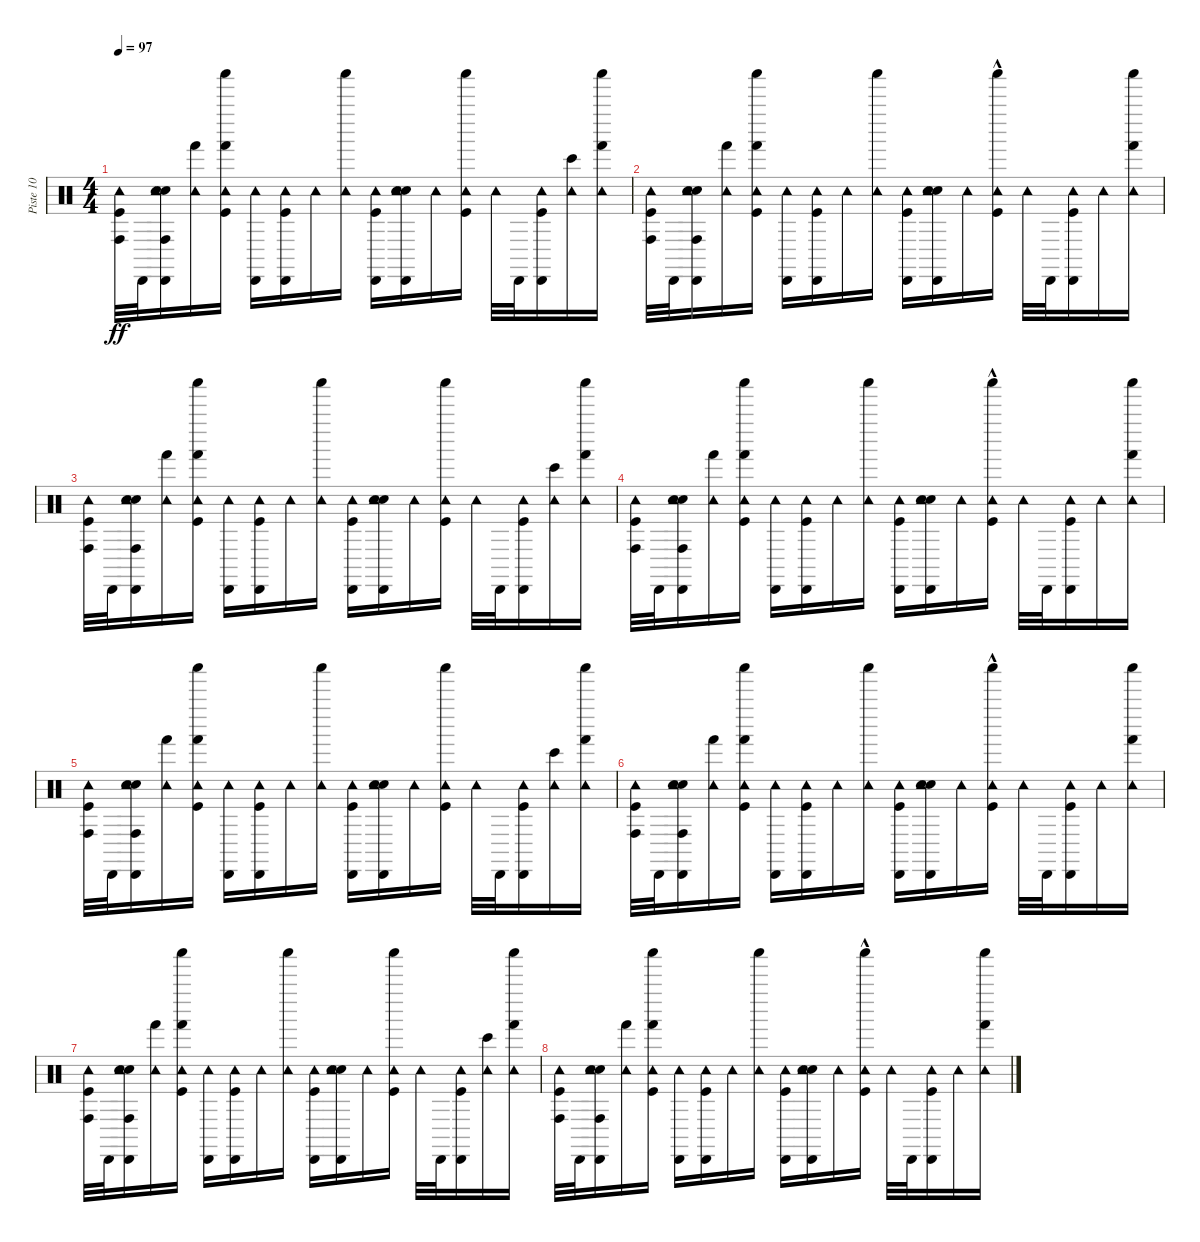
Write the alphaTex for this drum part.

\track ("Piste 10" "Piste 10") {instrument percussion}
\staff {score}
\articulation defaults
\ts (4 4)
\tempo 97
\clef neutral
\ks c
("Conga high (hit)" "Kick (hit)" "Tambourine (hit)").32{dy ff} "Cabasa (hit)".32 ("Conga high (hit)" "Cabasa (hit)" "Hand Clap (hit)" "Electric Snare (hit)" "Tambourine (hit)").16 ("Hand (hit)" "Tambourine (hit)").16 ("Hand (hit)" "Shaker (hit)" "Kick (hit)" "Tambourine (hit)").16 ("Cabasa (hit)" "Tambourine (hit)").16 ("Cabasa (hit)" "Kick (hit)" "Tambourine (hit)").16 "Tambourine (hit)".16 ("Shaker (hit)" "Tambourine (hit)").16 ("Cabasa (hit)" "Kick (hit)" "Tambourine (hit)").16 ("Cabasa (hit)" "Hand Clap (hit)" "Electric Snare (hit)" "Tambourine (hit)").16 "Tambourine (hit)".16 ("Shaker (hit)" "Kick (hit)" "Tambourine (hit)").16 "Tambourine (hit)".32 "Cabasa (hit)".32 ("Cabasa (hit)" "Kick (hit)" "Tambourine (hit)").16 ("Bongo High (hit)" "Tambourine (hit)").16 ("Hand (hit)" "Shaker (hit)" "Tambourine (hit)").16 |
("Conga high (hit)" "Kick (hit)" "Tambourine (hit)").32 "Cabasa (hit)".32 ("Conga high (hit)" "Cabasa (hit)" "Hand Clap (hit)" "Electric Snare (hit)" "Tambourine (hit)").16 ("Hand (hit)" "Tambourine (hit)").16 ("Hand (hit)" "Shaker (hit)" "Kick (hit)" "Tambourine (hit)").16 ("Cabasa (hit)" "Tambourine (hit)").16 ("Cabasa (hit)" "Kick (hit)" "Tambourine (hit)").16 "Tambourine (hit)".16 ("Shaker (hit)" "Tambourine (hit)").16 ("Cabasa (hit)" "Kick (hit)" "Tambourine (hit)").16 ("Cabasa (hit)" "Hand Clap (hit)" "Electric Snare (hit)" "Tambourine (hit)").16 "Tambourine (hit)".16 ("Shaker (hit)"{hac} "Kick (hit)" "Tambourine (hit)").16 "Tambourine (hit)".32 "Cabasa (hit)".32 ("Cabasa (hit)" "Kick (hit)" "Tambourine (hit)").16 "Tambourine (hit)".16 ("Hand (hit)" "Shaker (hit)" "Tambourine (hit)").16 |
("Conga high (hit)" "Kick (hit)" "Tambourine (hit)").32 "Cabasa (hit)".32 ("Conga high (hit)" "Cabasa (hit)" "Hand Clap (hit)" "Electric Snare (hit)" "Tambourine (hit)").16 ("Hand (hit)" "Tambourine (hit)").16 ("Hand (hit)" "Shaker (hit)" "Kick (hit)" "Tambourine (hit)").16 ("Cabasa (hit)" "Tambourine (hit)").16 ("Cabasa (hit)" "Kick (hit)" "Tambourine (hit)").16 "Tambourine (hit)".16 ("Shaker (hit)" "Tambourine (hit)").16 ("Cabasa (hit)" "Kick (hit)" "Tambourine (hit)").16 ("Cabasa (hit)" "Hand Clap (hit)" "Electric Snare (hit)" "Tambourine (hit)").16 "Tambourine (hit)".16 ("Shaker (hit)" "Kick (hit)" "Tambourine (hit)").16 "Tambourine (hit)".32 "Cabasa (hit)".32 ("Cabasa (hit)" "Kick (hit)" "Tambourine (hit)").16 ("Bongo High (hit)" "Tambourine (hit)").16 ("Hand (hit)" "Shaker (hit)" "Tambourine (hit)").16 |
("Conga high (hit)" "Kick (hit)" "Tambourine (hit)").32 "Cabasa (hit)".32 ("Conga high (hit)" "Cabasa (hit)" "Hand Clap (hit)" "Electric Snare (hit)" "Tambourine (hit)").16 ("Hand (hit)" "Tambourine (hit)").16 ("Hand (hit)" "Shaker (hit)" "Kick (hit)" "Tambourine (hit)").16 ("Cabasa (hit)" "Tambourine (hit)").16 ("Cabasa (hit)" "Kick (hit)" "Tambourine (hit)").16 "Tambourine (hit)".16 ("Shaker (hit)" "Tambourine (hit)").16 ("Cabasa (hit)" "Kick (hit)" "Tambourine (hit)").16 ("Cabasa (hit)" "Hand Clap (hit)" "Electric Snare (hit)" "Tambourine (hit)").16 "Tambourine (hit)".16 ("Shaker (hit)"{hac} "Kick (hit)" "Tambourine (hit)").16 "Tambourine (hit)".32 "Cabasa (hit)".32 ("Cabasa (hit)" "Kick (hit)" "Tambourine (hit)").16 "Tambourine (hit)".16 ("Hand (hit)" "Shaker (hit)" "Tambourine (hit)").16 |
("Conga high (hit)" "Kick (hit)" "Tambourine (hit)").32 "Cabasa (hit)".32 ("Conga high (hit)" "Cabasa (hit)" "Hand Clap (hit)" "Electric Snare (hit)" "Tambourine (hit)").16 ("Hand (hit)" "Tambourine (hit)").16 ("Hand (hit)" "Shaker (hit)" "Kick (hit)" "Tambourine (hit)").16 ("Cabasa (hit)" "Tambourine (hit)").16 ("Cabasa (hit)" "Kick (hit)" "Tambourine (hit)").16 "Tambourine (hit)".16 ("Shaker (hit)" "Tambourine (hit)").16 ("Cabasa (hit)" "Kick (hit)" "Tambourine (hit)").16 ("Cabasa (hit)" "Hand Clap (hit)" "Electric Snare (hit)" "Tambourine (hit)").16 "Tambourine (hit)".16 ("Shaker (hit)" "Kick (hit)" "Tambourine (hit)").16 "Tambourine (hit)".32 "Cabasa (hit)".32 ("Cabasa (hit)" "Kick (hit)" "Tambourine (hit)").16 ("Bongo High (hit)" "Tambourine (hit)").16 ("Hand (hit)" "Shaker (hit)" "Tambourine (hit)").16 |
("Conga high (hit)" "Kick (hit)" "Tambourine (hit)").32 "Cabasa (hit)".32 ("Conga high (hit)" "Cabasa (hit)" "Hand Clap (hit)" "Electric Snare (hit)" "Tambourine (hit)").16 ("Hand (hit)" "Tambourine (hit)").16 ("Hand (hit)" "Shaker (hit)" "Kick (hit)" "Tambourine (hit)").16 ("Cabasa (hit)" "Tambourine (hit)").16 ("Cabasa (hit)" "Kick (hit)" "Tambourine (hit)").16 "Tambourine (hit)".16 ("Shaker (hit)" "Tambourine (hit)").16 ("Cabasa (hit)" "Kick (hit)" "Tambourine (hit)").16 ("Cabasa (hit)" "Hand Clap (hit)" "Electric Snare (hit)" "Tambourine (hit)").16 "Tambourine (hit)".16 ("Shaker (hit)"{hac} "Kick (hit)" "Tambourine (hit)").16 "Tambourine (hit)".32 "Cabasa (hit)".32 ("Cabasa (hit)" "Kick (hit)" "Tambourine (hit)").16 "Tambourine (hit)".16 ("Hand (hit)" "Shaker (hit)" "Tambourine (hit)").16 |
("Conga high (hit)" "Kick (hit)" "Tambourine (hit)").32 "Cabasa (hit)".32 ("Conga high (hit)" "Cabasa (hit)" "Hand Clap (hit)" "Electric Snare (hit)" "Tambourine (hit)").16 ("Hand (hit)" "Tambourine (hit)").16 ("Hand (hit)" "Shaker (hit)" "Kick (hit)" "Tambourine (hit)").16 ("Cabasa (hit)" "Tambourine (hit)").16 ("Cabasa (hit)" "Kick (hit)" "Tambourine (hit)").16 "Tambourine (hit)".16 ("Shaker (hit)" "Tambourine (hit)").16 ("Cabasa (hit)" "Kick (hit)" "Tambourine (hit)").16 ("Cabasa (hit)" "Hand Clap (hit)" "Electric Snare (hit)" "Tambourine (hit)").16 "Tambourine (hit)".16 ("Shaker (hit)" "Kick (hit)" "Tambourine (hit)").16 "Tambourine (hit)".32 "Cabasa (hit)".32 ("Cabasa (hit)" "Kick (hit)" "Tambourine (hit)").16 ("Bongo High (hit)" "Tambourine (hit)").16 ("Hand (hit)" "Shaker (hit)" "Tambourine (hit)").16 |
("Conga high (hit)" "Kick (hit)" "Tambourine (hit)").32 "Cabasa (hit)".32 ("Conga high (hit)" "Cabasa (hit)" "Hand Clap (hit)" "Electric Snare (hit)" "Tambourine (hit)").16 ("Hand (hit)" "Tambourine (hit)").16 ("Hand (hit)" "Shaker (hit)" "Kick (hit)" "Tambourine (hit)").16 ("Cabasa (hit)" "Tambourine (hit)").16 ("Cabasa (hit)" "Kick (hit)" "Tambourine (hit)").16 "Tambourine (hit)".16 ("Shaker (hit)" "Tambourine (hit)").16 ("Cabasa (hit)" "Kick (hit)" "Tambourine (hit)").16 ("Cabasa (hit)" "Hand Clap (hit)" "Electric Snare (hit)" "Tambourine (hit)").16 "Tambourine (hit)".16 ("Shaker (hit)"{hac} "Kick (hit)" "Tambourine (hit)").16 "Tambourine (hit)".32 "Cabasa (hit)".32 ("Cabasa (hit)" "Kick (hit)" "Tambourine (hit)").16 "Tambourine (hit)".16 ("Hand (hit)" "Shaker (hit)" "Tambourine (hit)").16
